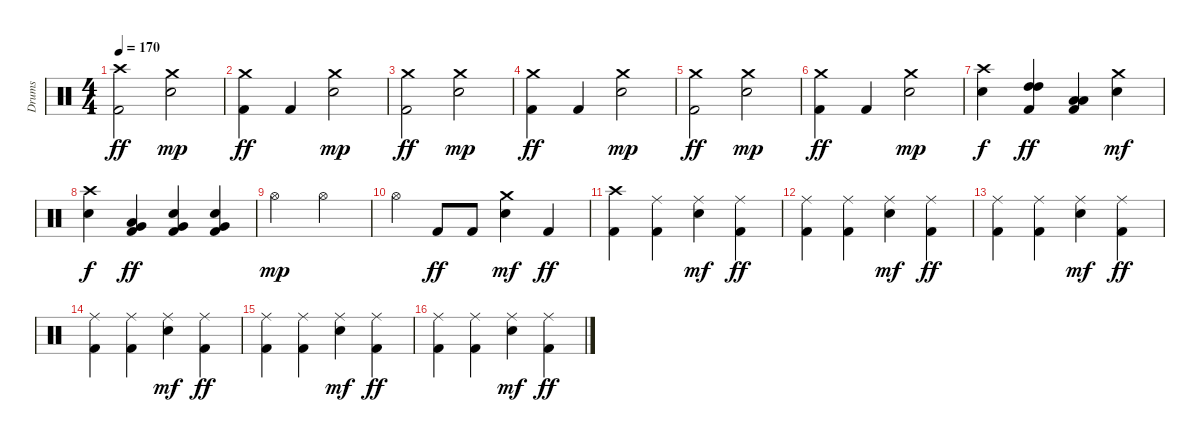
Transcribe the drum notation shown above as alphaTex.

\track ("Drums" "Drums") {instrument percussion}
\staff {score}
\articulation defaults
\ts (4 4)
\tempo 170
\clef neutral
\ks c
("Crash high (hit)" "Kick (hit) 2").2{dy ff} ("Crash medium (hit)" "Electric Snare (hit)").2{dy mp} |
("Crash medium (hit)" "Kick (hit) 2").4{dy ff} "Kick (hit) 2".4 ("Crash medium (hit)" "Electric Snare (hit)").2{dy mp} |
("Crash medium (hit)" "Kick (hit) 2").2{dy ff} ("Crash medium (hit)" "Electric Snare (hit)").2{dy mp} |
("Crash medium (hit)" "Kick (hit) 2").4{dy ff} "Kick (hit) 2".4 ("Crash medium (hit)" "Electric Snare (hit)").2{dy mp} |
("Crash medium (hit)" "Kick (hit) 2").2{dy ff} ("Crash medium (hit)" "Electric Snare (hit)").2{dy mp} |
("Crash medium (hit)" "Kick (hit) 2").4{dy ff} "Kick (hit) 2".4 ("Crash medium (hit)" "Electric Snare (hit)").2{dy mp} |
("Crash high (hit)" "Electric Snare (hit)").4{dy f} ("High Tom (hit)" "High Tom (hit)" "Kick (hit) 2").4{dy ff} ("Low Tom (hit)" "Low Tom (hit)" "Kick (hit) 2").4 ("Crash medium (hit)" "Electric Snare (hit)").4{dy mf} |
("Crash high (hit)" "Electric Snare (hit)").4{dy f} ("Low Tom (hit)" "Very Low Tom (hit)" "Kick (hit) 2").4{dy ff} ("Very Low Tom (hit)" "Electric Snare (hit)" "Kick (hit) 2").4 ("Very Low Tom (hit)" "Electric Snare (hit)" "Kick (hit) 2").4 |
\section ("" "")
"Hi-Hat (open)".2{dy mp} "Hi-Hat (open)".2 |
"Hi-Hat (open)".4 "Kick (hit) 2".8{dy ff} "Kick (hit) 2".8 ("Crash medium (hit)" "Electric Snare (hit)").4{dy mf} "Kick (hit) 2".4{dy ff} |
\section ("" "")
("Crash high (hit)" "Kick (hit) 2").4 ("Ride (middle)" "Kick (hit) 2").4 ("Ride (middle)" "Electric Snare (hit)").4{dy mf} ("Ride (middle)" "Kick (hit) 2").4{dy ff} |
("Ride (middle)" "Kick (hit) 2").4 ("Ride (middle)" "Kick (hit) 2").4 ("Ride (middle)" "Electric Snare (hit)").4{dy mf} ("Ride (middle)" "Kick (hit) 2").4{dy ff} |
("Ride (middle)" "Kick (hit) 2").4 ("Ride (middle)" "Kick (hit) 2").4 ("Ride (middle)" "Electric Snare (hit)").4{dy mf} ("Ride (middle)" "Kick (hit) 2").4{dy ff} |
("Ride (middle)" "Kick (hit) 2").4 ("Ride (middle)" "Kick (hit) 2").4 ("Ride (middle)" "Electric Snare (hit)").4{dy mf} ("Ride (middle)" "Kick (hit) 2").4{dy ff} |
("Ride (middle)" "Kick (hit) 2").4 ("Ride (middle)" "Kick (hit) 2").4 ("Ride (middle)" "Electric Snare (hit)").4{dy mf} ("Ride (middle)" "Kick (hit) 2").4{dy ff} |
("Ride (middle)" "Kick (hit) 2").4 ("Ride (middle)" "Kick (hit) 2").4 ("Ride (middle)" "Electric Snare (hit)").4{dy mf} ("Ride (middle)" "Kick (hit) 2").4{dy ff}
